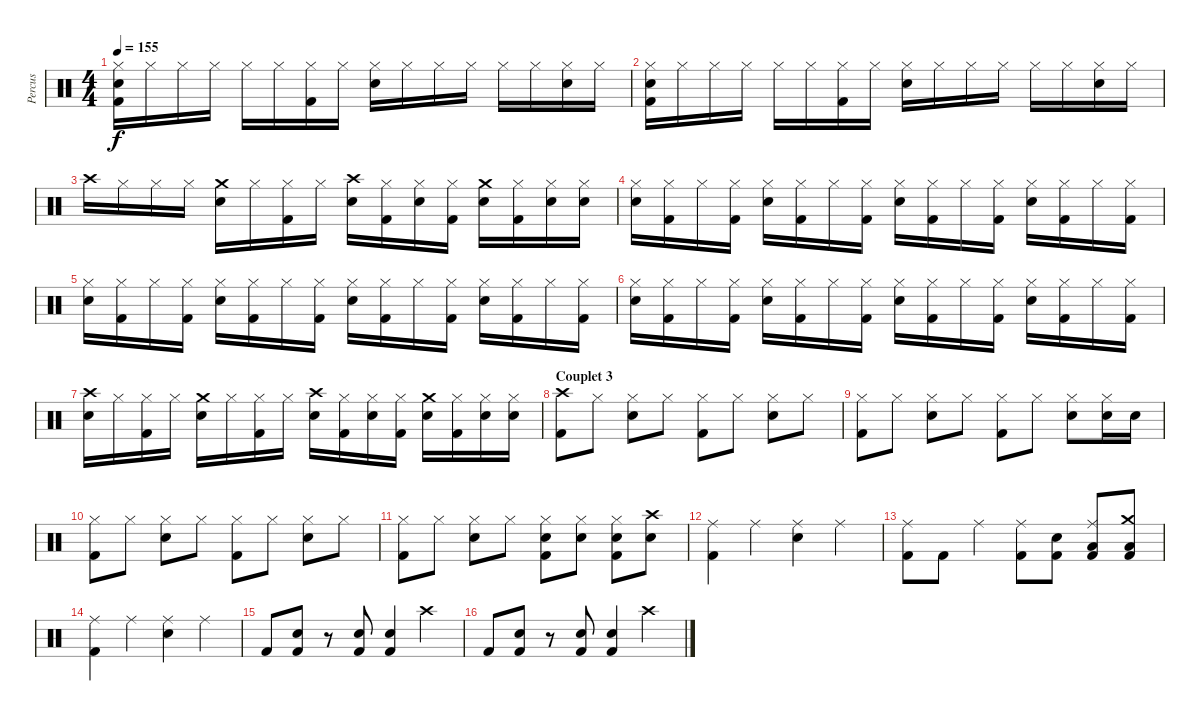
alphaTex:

\track ("Percus" "Percus") {instrument percussion}
\staff {score}
\articulation defaults
\ts (4 4)
\tempo 155
\clef neutral
\ks c
("Hi-Hat (closed)" "Snare (hit) 2" "Kick (hit) 2").16{dy f} "Hi-Hat (closed)".16 "Hi-Hat (closed)".16 "Hi-Hat (closed)".16 "Hi-Hat (closed)".16 "Hi-Hat (closed)".16 ("Hi-Hat (closed)" "Kick (hit) 2").16 "Hi-Hat (closed)".16 ("Hi-Hat (closed)" "Snare (hit) 2").16 "Hi-Hat (closed)".16 "Hi-Hat (closed)".16 "Hi-Hat (closed)".16 "Hi-Hat (closed)".16 "Hi-Hat (closed)".16 ("Hi-Hat (closed)" "Snare (hit) 2").16 "Hi-Hat (closed)".16 |
("Hi-Hat (closed)" "Snare (hit) 2" "Kick (hit) 2").16 "Hi-Hat (closed)".16 "Hi-Hat (closed)".16 "Hi-Hat (closed)".16 "Hi-Hat (closed)".16 "Hi-Hat (closed)".16 ("Hi-Hat (closed)" "Kick (hit) 2").16 "Hi-Hat (closed)".16 ("Hi-Hat (closed)" "Snare (hit) 2").16 "Hi-Hat (closed)".16 "Hi-Hat (closed)".16 "Hi-Hat (closed)".16 "Hi-Hat (closed)".16 "Hi-Hat (closed)".16 ("Hi-Hat (closed)" "Snare (hit) 2").16 "Hi-Hat (closed)".16 |
"Crash high (hit)".16 "Hi-Hat (closed)".16 "Hi-Hat (closed)".16 "Hi-Hat (closed)".16 ("Crash medium (hit)" "Snare (hit) 2").16 "Hi-Hat (closed)".16 ("Hi-Hat (closed)" "Kick (hit) 2").16 "Hi-Hat (closed)".16 ("Crash high (hit)" "Snare (hit) 2").16 ("Hi-Hat (closed)" "Kick (hit) 2").16 ("Hi-Hat (closed)" "Snare (hit) 2").16 ("Hi-Hat (closed)" "Kick (hit) 2").16 ("Crash medium (hit)" "Snare (hit) 2").16 ("Hi-Hat (closed)" "Kick (hit) 2").16 ("Hi-Hat (closed)" "Snare (hit) 2").16 ("Hi-Hat (closed)" "Snare (hit) 2").16 |
("Hi-Hat (closed)" "Snare (hit) 2").16 ("Hi-Hat (closed)" "Kick (hit) 2").16 "Hi-Hat (closed)".16 ("Hi-Hat (closed)" "Kick (hit) 2").16 ("Hi-Hat (closed)" "Snare (hit) 2").16 ("Hi-Hat (closed)" "Kick (hit) 2").16 "Hi-Hat (closed)".16 ("Hi-Hat (closed)" "Kick (hit) 2").16 ("Hi-Hat (closed)" "Snare (hit) 2").16 ("Hi-Hat (closed)" "Kick (hit) 2").16 "Hi-Hat (closed)".16 ("Hi-Hat (closed)" "Kick (hit) 2").16 ("Hi-Hat (closed)" "Snare (hit) 2").16 ("Hi-Hat (closed)" "Kick (hit) 2").16 "Hi-Hat (closed)".16 ("Hi-Hat (closed)" "Kick (hit) 2").16 |
("Hi-Hat (closed)" "Snare (hit) 2").16 ("Hi-Hat (closed)" "Kick (hit) 2").16 "Hi-Hat (closed)".16 ("Hi-Hat (closed)" "Kick (hit) 2").16 ("Hi-Hat (closed)" "Snare (hit) 2").16 ("Hi-Hat (closed)" "Kick (hit) 2").16 "Hi-Hat (closed)".16 ("Hi-Hat (closed)" "Kick (hit) 2").16 ("Hi-Hat (closed)" "Snare (hit) 2").16 ("Hi-Hat (closed)" "Kick (hit) 2").16 "Hi-Hat (closed)".16 ("Hi-Hat (closed)" "Kick (hit) 2").16 ("Hi-Hat (closed)" "Snare (hit) 2").16 ("Hi-Hat (closed)" "Kick (hit) 2").16 "Hi-Hat (closed)".16 ("Hi-Hat (closed)" "Kick (hit) 2").16 |
("Hi-Hat (closed)" "Snare (hit) 2").16 ("Hi-Hat (closed)" "Kick (hit) 2").16 "Hi-Hat (closed)".16 ("Hi-Hat (closed)" "Kick (hit) 2").16 ("Hi-Hat (closed)" "Snare (hit) 2").16 ("Hi-Hat (closed)" "Kick (hit) 2").16 "Hi-Hat (closed)".16 ("Hi-Hat (closed)" "Kick (hit) 2").16 ("Hi-Hat (closed)" "Snare (hit) 2").16 ("Hi-Hat (closed)" "Kick (hit) 2").16 "Hi-Hat (closed)".16 ("Hi-Hat (closed)" "Kick (hit) 2").16 ("Hi-Hat (closed)" "Snare (hit) 2").16 ("Hi-Hat (closed)" "Kick (hit) 2").16 "Hi-Hat (closed)".16 ("Hi-Hat (closed)" "Kick (hit) 2").16 |
("Crash high (hit)" "Snare (hit) 2").16 "Hi-Hat (closed)".16 ("Hi-Hat (closed)" "Kick (hit) 2").16 "Hi-Hat (closed)".16 ("Crash medium (hit)" "Snare (hit) 2").16 "Hi-Hat (closed)".16 ("Hi-Hat (closed)" "Kick (hit) 2").16 "Hi-Hat (closed)".16 ("Crash high (hit)" "Snare (hit) 2").16 ("Hi-Hat (closed)" "Kick (hit) 2").16 ("Hi-Hat (closed)" "Snare (hit) 2").16 ("Hi-Hat (closed)" "Kick (hit) 2").16 ("Crash medium (hit)" "Snare (hit) 2").16 ("Hi-Hat (closed)" "Kick (hit) 2").16 ("Hi-Hat (closed)" "Snare (hit) 2").16 ("Hi-Hat (closed)" "Snare (hit) 2").16 |
\section ("" "Couplet 3")
("Crash high (hit)" "Kick (hit) 2").8 "Hi-Hat (closed)".8 ("Hi-Hat (closed)" "Snare (hit) 2").8 "Hi-Hat (closed)".8 ("Hi-Hat (closed)" "Kick (hit) 2").8 "Hi-Hat (closed)".8 ("Hi-Hat (closed)" "Snare (hit) 2").8 "Hi-Hat (closed)".8 |
("Hi-Hat (closed)" "Kick (hit) 2").8 "Hi-Hat (closed)".8 ("Hi-Hat (closed)" "Snare (hit) 2").8 "Hi-Hat (closed)".8 ("Hi-Hat (closed)" "Kick (hit) 2").8 "Hi-Hat (closed)".8 ("Hi-Hat (closed)" "Snare (hit) 2").8 ("Hi-Hat (closed)" "Snare (hit) 2").16 "Snare (hit) 2".16 |
("Hi-Hat (closed)" "Kick (hit) 2").8 "Hi-Hat (closed)".8 ("Hi-Hat (closed)" "Snare (hit) 2").8 "Hi-Hat (closed)".8 ("Hi-Hat (closed)" "Kick (hit) 2").8 "Hi-Hat (closed)".8 ("Hi-Hat (closed)" "Snare (hit) 2").8 "Hi-Hat (closed)".8 |
("Hi-Hat (closed)" "Kick (hit) 2").8 "Hi-Hat (closed)".8 ("Hi-Hat (closed)" "Snare (hit) 2").8 "Hi-Hat (closed)".8 ("Hi-Hat (closed)" "Snare (hit) 2" "Kick (hit) 2").8 ("Hi-Hat (closed)" "Snare (hit) 2").8 ("Hi-Hat (closed)" "Snare (hit) 2" "Kick (hit) 2").8 ("Crash high (hit)" "Snare (hit) 2").8 |
("Ride (middle)" "Kick (hit) 2").4 "Ride (middle)".4 ("Ride (middle)" "Snare (hit) 2").4 "Ride (middle)".4 |
("Ride (middle)" "Kick (hit) 2").8 "Kick (hit) 2".8 "Ride (middle)".4 ("Ride (middle)" "Kick (hit) 2").8 ("Snare (hit) 2" "Kick (hit) 2").8 ("Ride (middle)" "Low Tom (hit)" "Kick (hit) 2").8 ("Crash medium (hit)" "Low Floor Tom (hit)" "Kick (hit) 2").8 |
("Ride (middle)" "Kick (hit) 2").4 "Ride (middle)".4 ("Ride (middle)" "Snare (hit) 2").4 "Ride (middle)".4 |
"Kick (hit) 2".8 ("Snare (hit) 2" "Kick (hit) 2").8 r.8 ("Snare (hit) 2" "Kick (hit) 2").8 ("Snare (hit) 2" "Kick (hit) 2").4 "Crash high (hit)".4 |
"Kick (hit) 2".8 ("Snare (hit) 2" "Kick (hit) 2").8 r.8 ("Snare (hit) 2" "Kick (hit) 2").8 ("Snare (hit) 2" "Kick (hit) 2").4 "Crash high (hit)".4
